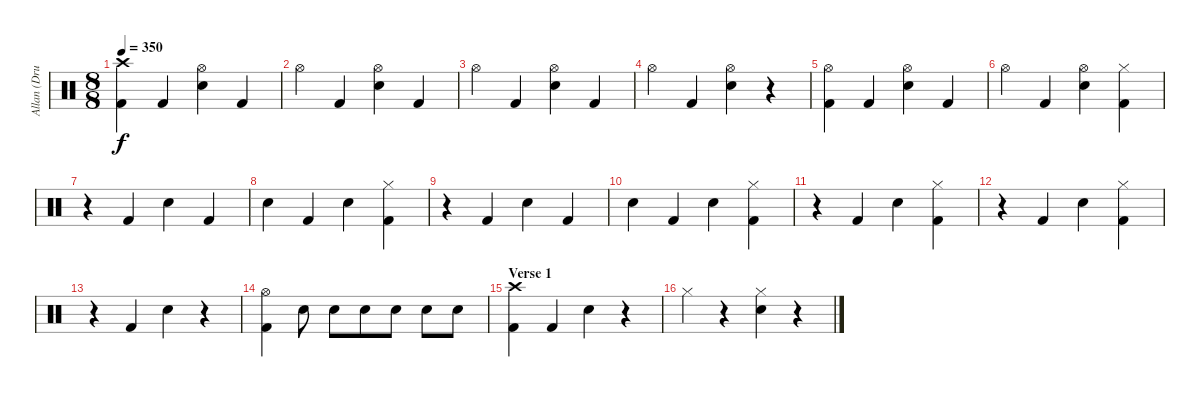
\track ("Allan (Drums)" "Allan (Dru") {instrument percussion}
\staff {score}
\articulation defaults
\ts (8 8)
\tempo 350
\clef neutral
\ks c
("Crash high (hit)" "Kick (hit) 2").4{dy f} "Kick (hit) 2".4 ("Hi-Hat (open)" "Snare (hit) 2").4 "Kick (hit) 2".4 |
"Hi-Hat (open)".4 "Kick (hit) 2".4 ("Hi-Hat (open)" "Snare (hit) 2").4 "Kick (hit) 2".4 |
"Hi-Hat (open)".4 "Kick (hit) 2".4 ("Hi-Hat (open)" "Snare (hit) 2").4 "Kick (hit) 2".4 |
"Hi-Hat (open)".4 "Kick (hit) 2".4 ("Hi-Hat (open)" "Snare (hit) 2").4 r.4 |
("Hi-Hat (open)" "Kick (hit) 2").4 "Kick (hit) 2".4 ("Hi-Hat (open)" "Snare (hit) 2").4 "Kick (hit) 2".4 |
"Hi-Hat (open)".4 "Kick (hit) 2".4 ("Hi-Hat (open)" "Snare (hit) 2").4 ("Hi-Hat (closed)" "Kick (hit) 2").4 |
r.4 "Kick (hit) 2".4 "Snare (hit) 2".4 "Kick (hit) 2".4 |
"Snare (hit) 2".4 "Kick (hit) 2".4 "Snare (hit) 2".4 ("Hi-Hat (closed)" "Kick (hit) 2").4 |
r.4 "Kick (hit) 2".4 "Snare (hit) 2".4 "Kick (hit) 2".4 |
"Snare (hit) 2".4 "Kick (hit) 2".4 "Snare (hit) 2".4 ("Hi-Hat (closed)" "Kick (hit) 2").4 |
r.4 "Kick (hit) 2".4 "Snare (hit) 2".4 ("Hi-Hat (closed)" "Kick (hit) 2").4 |
r.4 "Kick (hit) 2".4 "Snare (hit) 2".4 ("Hi-Hat (closed)" "Kick (hit) 2").4 |
r.4 "Kick (hit) 2".4 "Snare (hit) 2".4 r.4 |
("Hi-Hat (open)" "Kick (hit) 2").4 "Snare (hit) 2".8 "Snare (hit) 2".8 "Snare (hit) 2".8 "Snare (hit) 2".8 "Snare (hit) 2".8 "Snare (hit) 2".8 |
\section ("" "Verse 1")
("Crash high (hit)" "Kick (hit) 2").4 "Kick (hit) 2".4 "Snare (hit) 2".4 r.4 |
"Hi-Hat (closed)".4 r.4 ("Hi-Hat (closed)" "Snare (hit) 2").4 r.4
